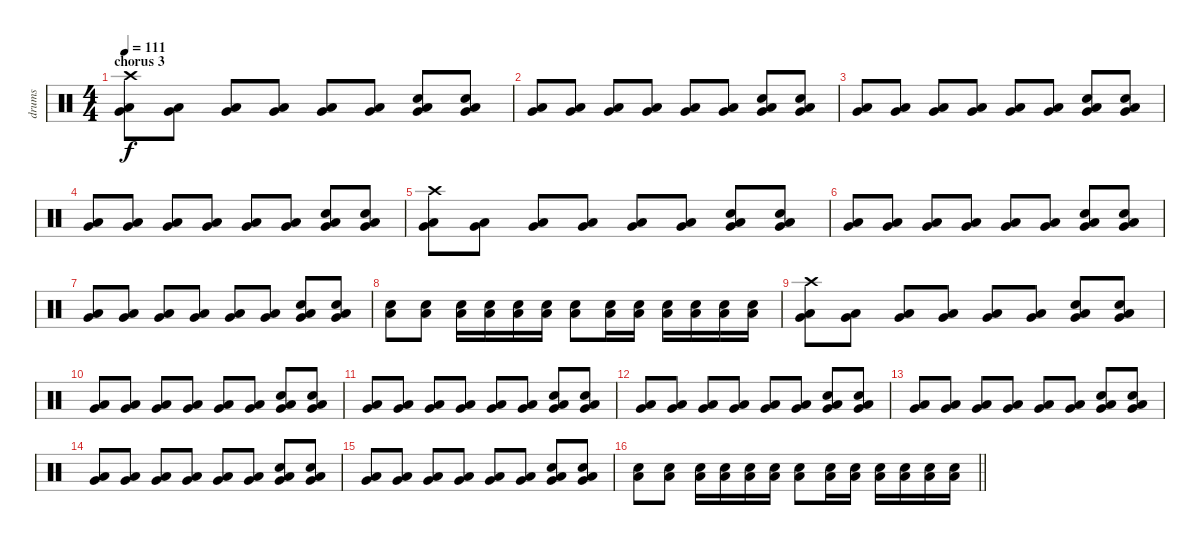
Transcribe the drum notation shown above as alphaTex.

\track ("drums" "drums") {instrument percussion}
\staff {score}
\articulation defaults
\ts (4 4)
\section ("" "chorus 3")
\tempo 111
\clef neutral
\ks c
("Very Low Tom (hit)" "Low Floor Tom (hit)" "Crash high (hit)").8{dy f} ("Very Low Tom (hit)" "Low Floor Tom (hit)").8 ("Very Low Tom (hit)" "Low Floor Tom (hit)").8 ("Very Low Tom (hit)" "Low Floor Tom (hit)").8 ("Very Low Tom (hit)" "Low Floor Tom (hit)").8 ("Very Low Tom (hit)" "Low Floor Tom (hit)").8 ("Electric Snare (hit)" "Very Low Tom (hit)" "Low Floor Tom (hit)").8 ("Electric Snare (hit)" "Very Low Tom (hit)" "Low Floor Tom (hit)").8 |
("Very Low Tom (hit)" "Low Floor Tom (hit)").8 ("Very Low Tom (hit)" "Low Floor Tom (hit)").8 ("Very Low Tom (hit)" "Low Floor Tom (hit)").8 ("Very Low Tom (hit)" "Low Floor Tom (hit)").8 ("Very Low Tom (hit)" "Low Floor Tom (hit)").8 ("Very Low Tom (hit)" "Low Floor Tom (hit)").8 ("Electric Snare (hit)" "Very Low Tom (hit)" "Low Floor Tom (hit)").8 ("Electric Snare (hit)" "Very Low Tom (hit)" "Low Floor Tom (hit)").8 |
("Very Low Tom (hit)" "Low Floor Tom (hit)").8 ("Very Low Tom (hit)" "Low Floor Tom (hit)").8 ("Very Low Tom (hit)" "Low Floor Tom (hit)").8 ("Very Low Tom (hit)" "Low Floor Tom (hit)").8 ("Very Low Tom (hit)" "Low Floor Tom (hit)").8 ("Very Low Tom (hit)" "Low Floor Tom (hit)").8 ("Electric Snare (hit)" "Very Low Tom (hit)" "Low Floor Tom (hit)").8 ("Electric Snare (hit)" "Very Low Tom (hit)" "Low Floor Tom (hit)").8 |
("Very Low Tom (hit)" "Low Floor Tom (hit)").8 ("Very Low Tom (hit)" "Low Floor Tom (hit)").8 ("Very Low Tom (hit)" "Low Floor Tom (hit)").8 ("Very Low Tom (hit)" "Low Floor Tom (hit)").8 ("Very Low Tom (hit)" "Low Floor Tom (hit)").8 ("Very Low Tom (hit)" "Low Floor Tom (hit)").8 ("Electric Snare (hit)" "Very Low Tom (hit)" "Low Floor Tom (hit)").8 ("Electric Snare (hit)" "Very Low Tom (hit)" "Low Floor Tom (hit)").8 |
("Very Low Tom (hit)" "Low Floor Tom (hit)" "Crash high (hit)").8 ("Very Low Tom (hit)" "Low Floor Tom (hit)").8 ("Very Low Tom (hit)" "Low Floor Tom (hit)").8 ("Very Low Tom (hit)" "Low Floor Tom (hit)").8 ("Very Low Tom (hit)" "Low Floor Tom (hit)").8 ("Very Low Tom (hit)" "Low Floor Tom (hit)").8 ("Electric Snare (hit)" "Very Low Tom (hit)" "Low Floor Tom (hit)").8 ("Electric Snare (hit)" "Very Low Tom (hit)" "Low Floor Tom (hit)").8 |
("Very Low Tom (hit)" "Low Floor Tom (hit)").8 ("Very Low Tom (hit)" "Low Floor Tom (hit)").8 ("Very Low Tom (hit)" "Low Floor Tom (hit)").8 ("Very Low Tom (hit)" "Low Floor Tom (hit)").8 ("Very Low Tom (hit)" "Low Floor Tom (hit)").8 ("Very Low Tom (hit)" "Low Floor Tom (hit)").8 ("Electric Snare (hit)" "Very Low Tom (hit)" "Low Floor Tom (hit)").8 ("Electric Snare (hit)" "Very Low Tom (hit)" "Low Floor Tom (hit)").8 |
("Very Low Tom (hit)" "Low Floor Tom (hit)").8 ("Very Low Tom (hit)" "Low Floor Tom (hit)").8 ("Very Low Tom (hit)" "Low Floor Tom (hit)").8 ("Very Low Tom (hit)" "Low Floor Tom (hit)").8 ("Very Low Tom (hit)" "Low Floor Tom (hit)").8 ("Very Low Tom (hit)" "Low Floor Tom (hit)").8 ("Electric Snare (hit)" "Very Low Tom (hit)" "Low Floor Tom (hit)").8 ("Electric Snare (hit)" "Very Low Tom (hit)" "Low Floor Tom (hit)").8 |
("Electric Snare (hit)" "Low Floor Tom (hit)").8 ("Electric Snare (hit)" "Low Floor Tom (hit)").8 ("Electric Snare (hit)" "Low Floor Tom (hit)").16 ("Electric Snare (hit)" "Low Floor Tom (hit)").16 ("Electric Snare (hit)" "Low Floor Tom (hit)").16 ("Electric Snare (hit)" "Low Floor Tom (hit)").16 ("Electric Snare (hit)" "Low Floor Tom (hit)").8 ("Electric Snare (hit)" "Low Floor Tom (hit)").16 ("Electric Snare (hit)" "Low Floor Tom (hit)").16 ("Electric Snare (hit)" "Low Floor Tom (hit)").16 ("Electric Snare (hit)" "Low Floor Tom (hit)").16 ("Electric Snare (hit)" "Low Floor Tom (hit)").16 ("Electric Snare (hit)" "Low Floor Tom (hit)").16 |
("Very Low Tom (hit)" "Low Floor Tom (hit)" "Crash high (hit)").8 ("Very Low Tom (hit)" "Low Floor Tom (hit)").8 ("Very Low Tom (hit)" "Low Floor Tom (hit)").8 ("Very Low Tom (hit)" "Low Floor Tom (hit)").8 ("Very Low Tom (hit)" "Low Floor Tom (hit)").8 ("Very Low Tom (hit)" "Low Floor Tom (hit)").8 ("Electric Snare (hit)" "Very Low Tom (hit)" "Low Floor Tom (hit)").8 ("Electric Snare (hit)" "Very Low Tom (hit)" "Low Floor Tom (hit)").8 |
("Very Low Tom (hit)" "Low Floor Tom (hit)").8 ("Very Low Tom (hit)" "Low Floor Tom (hit)").8 ("Very Low Tom (hit)" "Low Floor Tom (hit)").8 ("Very Low Tom (hit)" "Low Floor Tom (hit)").8 ("Very Low Tom (hit)" "Low Floor Tom (hit)").8 ("Very Low Tom (hit)" "Low Floor Tom (hit)").8 ("Electric Snare (hit)" "Very Low Tom (hit)" "Low Floor Tom (hit)").8 ("Electric Snare (hit)" "Very Low Tom (hit)" "Low Floor Tom (hit)").8 |
("Very Low Tom (hit)" "Low Floor Tom (hit)").8 ("Very Low Tom (hit)" "Low Floor Tom (hit)").8 ("Very Low Tom (hit)" "Low Floor Tom (hit)").8 ("Very Low Tom (hit)" "Low Floor Tom (hit)").8 ("Very Low Tom (hit)" "Low Floor Tom (hit)").8 ("Very Low Tom (hit)" "Low Floor Tom (hit)").8 ("Electric Snare (hit)" "Very Low Tom (hit)" "Low Floor Tom (hit)").8 ("Electric Snare (hit)" "Very Low Tom (hit)" "Low Floor Tom (hit)").8 |
("Very Low Tom (hit)" "Low Floor Tom (hit)").8 ("Very Low Tom (hit)" "Low Floor Tom (hit)").8 ("Very Low Tom (hit)" "Low Floor Tom (hit)").8 ("Very Low Tom (hit)" "Low Floor Tom (hit)").8 ("Very Low Tom (hit)" "Low Floor Tom (hit)").8 ("Very Low Tom (hit)" "Low Floor Tom (hit)").8 ("Electric Snare (hit)" "Very Low Tom (hit)" "Low Floor Tom (hit)").8 ("Electric Snare (hit)" "Very Low Tom (hit)" "Low Floor Tom (hit)").8 |
("Very Low Tom (hit)" "Low Floor Tom (hit)").8 ("Very Low Tom (hit)" "Low Floor Tom (hit)").8 ("Very Low Tom (hit)" "Low Floor Tom (hit)").8 ("Very Low Tom (hit)" "Low Floor Tom (hit)").8 ("Very Low Tom (hit)" "Low Floor Tom (hit)").8 ("Very Low Tom (hit)" "Low Floor Tom (hit)").8 ("Electric Snare (hit)" "Very Low Tom (hit)" "Low Floor Tom (hit)").8 ("Electric Snare (hit)" "Very Low Tom (hit)" "Low Floor Tom (hit)").8 |
("Very Low Tom (hit)" "Low Floor Tom (hit)").8 ("Very Low Tom (hit)" "Low Floor Tom (hit)").8 ("Very Low Tom (hit)" "Low Floor Tom (hit)").8 ("Very Low Tom (hit)" "Low Floor Tom (hit)").8 ("Very Low Tom (hit)" "Low Floor Tom (hit)").8 ("Very Low Tom (hit)" "Low Floor Tom (hit)").8 ("Electric Snare (hit)" "Very Low Tom (hit)" "Low Floor Tom (hit)").8 ("Electric Snare (hit)" "Very Low Tom (hit)" "Low Floor Tom (hit)").8 |
("Very Low Tom (hit)" "Low Floor Tom (hit)").8 ("Very Low Tom (hit)" "Low Floor Tom (hit)").8 ("Very Low Tom (hit)" "Low Floor Tom (hit)").8 ("Very Low Tom (hit)" "Low Floor Tom (hit)").8 ("Very Low Tom (hit)" "Low Floor Tom (hit)").8 ("Very Low Tom (hit)" "Low Floor Tom (hit)").8 ("Electric Snare (hit)" "Very Low Tom (hit)" "Low Floor Tom (hit)").8 ("Electric Snare (hit)" "Very Low Tom (hit)" "Low Floor Tom (hit)").8 |
\barLineRight lightlight
("Electric Snare (hit)" "Low Floor Tom (hit)").8 ("Electric Snare (hit)" "Low Floor Tom (hit)").8 ("Electric Snare (hit)" "Low Floor Tom (hit)").16 ("Electric Snare (hit)" "Low Floor Tom (hit)").16 ("Electric Snare (hit)" "Low Floor Tom (hit)").16 ("Electric Snare (hit)" "Low Floor Tom (hit)").16 ("Electric Snare (hit)" "Low Floor Tom (hit)").8 ("Electric Snare (hit)" "Low Floor Tom (hit)").16 ("Electric Snare (hit)" "Low Floor Tom (hit)").16 ("Electric Snare (hit)" "Low Floor Tom (hit)").16 ("Electric Snare (hit)" "Low Floor Tom (hit)").16 ("Electric Snare (hit)" "Low Floor Tom (hit)").16 ("Electric Snare (hit)" "Low Floor Tom (hit)").16
